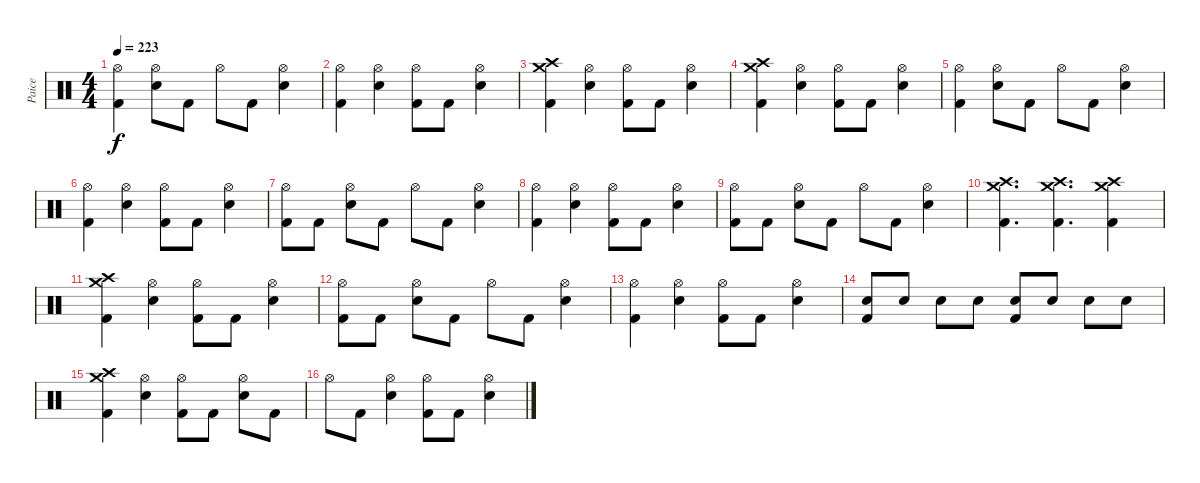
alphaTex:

\track ("Paice" "Paice") {instrument percussion}
\staff {score}
\articulation defaults
\ts (4 4)
\tempo 223
\clef neutral
\ks c
("Hi-Hat (open)" "Kick (hit) 2").4{dy f} ("Hi-Hat (open)" "Electric Snare (hit)").8 "Kick (hit) 2".8 "Hi-Hat (open)".8 "Kick (hit) 2".8 ("Hi-Hat (open)" "Electric Snare (hit)").4 |
("Hi-Hat (open)" "Kick (hit) 2").4 ("Hi-Hat (open)" "Electric Snare (hit)").4 ("Hi-Hat (open)" "Kick (hit) 2").8 "Kick (hit) 2".8 ("Hi-Hat (open)" "Electric Snare (hit)").4 |
("Crash high (hit)" "Crash medium (hit)" "Kick (hit) 2").4 ("Hi-Hat (open)" "Electric Snare (hit)").4 ("Hi-Hat (open)" "Kick (hit) 2").8 "Kick (hit) 2".8 ("Hi-Hat (open)" "Electric Snare (hit)").4 |
("Crash high (hit)" "Crash medium (hit)" "Kick (hit) 2").4 ("Hi-Hat (open)" "Electric Snare (hit)").4 ("Hi-Hat (open)" "Kick (hit) 2").8 "Kick (hit) 2".8 ("Hi-Hat (open)" "Electric Snare (hit)").4 |
("Hi-Hat (open)" "Kick (hit) 2").4 ("Hi-Hat (open)" "Electric Snare (hit)").8 "Kick (hit) 2".8 "Hi-Hat (open)".8 "Kick (hit) 2".8 ("Hi-Hat (open)" "Electric Snare (hit)").4 |
("Hi-Hat (open)" "Kick (hit) 2").4 ("Hi-Hat (open)" "Electric Snare (hit)").4 ("Hi-Hat (open)" "Kick (hit) 2").8 "Kick (hit) 2".8 ("Hi-Hat (open)" "Electric Snare (hit)").4 |
("Hi-Hat (open)" "Kick (hit) 2").8 "Kick (hit) 2".8 ("Hi-Hat (open)" "Electric Snare (hit)").8 "Kick (hit) 2".8 "Hi-Hat (open)".8 "Kick (hit) 2".8 ("Hi-Hat (open)" "Electric Snare (hit)").4 |
("Hi-Hat (open)" "Kick (hit) 2").4 ("Hi-Hat (open)" "Electric Snare (hit)").4 ("Hi-Hat (open)" "Kick (hit) 2").8 "Kick (hit) 2".8 ("Hi-Hat (open)" "Electric Snare (hit)").4 |
("Hi-Hat (open)" "Kick (hit) 2").8 "Kick (hit) 2".8 ("Hi-Hat (open)" "Electric Snare (hit)").8 "Kick (hit) 2".8 "Hi-Hat (open)".8 "Kick (hit) 2".8 ("Hi-Hat (open)" "Electric Snare (hit)").4 |
("Crash high (hit)" "Crash medium (hit)" "Kick (hit) 2").4{d} ("Crash high (hit)" "Crash medium (hit)" "Kick (hit) 2").4{d} ("Crash high (hit)" "Crash medium (hit)" "Kick (hit) 2").4 |
("Crash high (hit)" "Crash medium (hit)" "Kick (hit) 2").4 ("Hi-Hat (open)" "Electric Snare (hit)").4 ("Hi-Hat (open)" "Kick (hit) 2").8 "Kick (hit) 2".8 ("Hi-Hat (open)" "Electric Snare (hit)").4 |
("Hi-Hat (open)" "Kick (hit) 2").8 "Kick (hit) 2".8 ("Hi-Hat (open)" "Electric Snare (hit)").8 "Kick (hit) 2".8 "Hi-Hat (open)".8 "Kick (hit) 2".8 ("Hi-Hat (open)" "Electric Snare (hit)").4 |
("Hi-Hat (open)" "Kick (hit) 2").4 ("Hi-Hat (open)" "Electric Snare (hit)").4 ("Hi-Hat (open)" "Kick (hit) 2").8 "Kick (hit) 2".8 ("Hi-Hat (open)" "Electric Snare (hit)").4 |
("Electric Snare (hit)" "Kick (hit) 2").8 "Electric Snare (hit)".8 "Electric Snare (hit)".8 "Electric Snare (hit)".8 ("Electric Snare (hit)" "Kick (hit) 2").8 "Electric Snare (hit)".8 "Electric Snare (hit)".8 "Electric Snare (hit)".8 |
("Crash high (hit)" "Crash medium (hit)" "Kick (hit) 2").4 ("Hi-Hat (open)" "Electric Snare (hit)").4 ("Hi-Hat (open)" "Kick (hit) 2").8 "Kick (hit) 2".8 ("Hi-Hat (open)" "Electric Snare (hit)").8 "Kick (hit) 2".8 |
"Hi-Hat (open)".8 "Kick (hit) 2".8 ("Hi-Hat (open)" "Electric Snare (hit)").4 ("Hi-Hat (open)" "Kick (hit) 2").8 "Kick (hit) 2".8 ("Hi-Hat (open)" "Electric Snare (hit)").4
